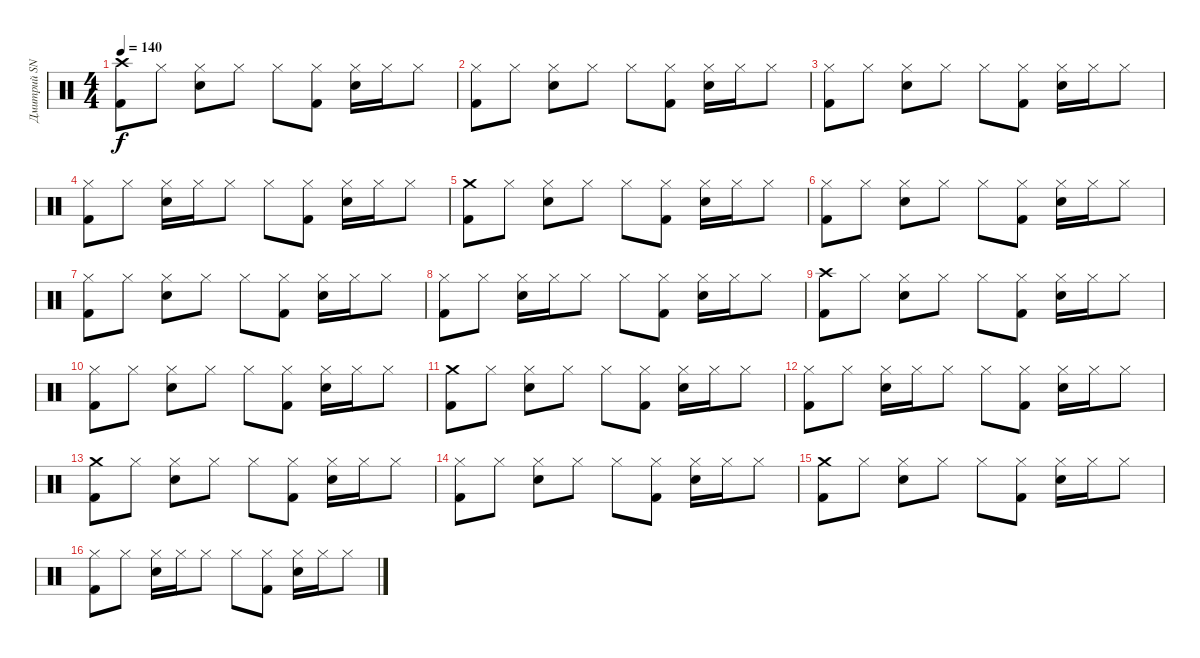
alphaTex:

\track ("Дмитрий SNAKE Хакимов" "Дмитрий SN") {instrument percussion}
\staff {score}
\articulation defaults
\ts (4 4)
\tempo 140
\clef neutral
\ks c
("Crash high (hit)" "Kick (hit) 2").8{dy f} "Hi-Hat (closed)".8 ("Hi-Hat (closed)" "Electric Snare (hit)").8 "Hi-Hat (closed)".8 "Hi-Hat (closed)".8 ("Hi-Hat (closed)" "Kick (hit) 2").8 ("Hi-Hat (closed)" "Electric Snare (hit)").16 "Hi-Hat (closed)".16 "Hi-Hat (closed)".8 |
("Hi-Hat (closed)" "Kick (hit) 2").8 "Hi-Hat (closed)".8 ("Hi-Hat (closed)" "Electric Snare (hit)").8 "Hi-Hat (closed)".8 "Hi-Hat (closed)".8 ("Hi-Hat (closed)" "Kick (hit) 2").8 ("Hi-Hat (closed)" "Electric Snare (hit)").16 "Hi-Hat (closed)".16 "Hi-Hat (closed)".8 |
("Hi-Hat (closed)" "Kick (hit) 2").8 "Hi-Hat (closed)".8 ("Hi-Hat (closed)" "Electric Snare (hit)").8 "Hi-Hat (closed)".8 "Hi-Hat (closed)".8 ("Hi-Hat (closed)" "Kick (hit) 2").8 ("Hi-Hat (closed)" "Electric Snare (hit)").16 "Hi-Hat (closed)".16 "Hi-Hat (closed)".8 |
("Hi-Hat (closed)" "Kick (hit) 2").8 "Hi-Hat (closed)".8 ("Hi-Hat (closed)" "Electric Snare (hit)").16 "Hi-Hat (closed)".16 "Hi-Hat (closed)".8 "Hi-Hat (closed)".8 ("Hi-Hat (closed)" "Kick (hit) 2").8 ("Hi-Hat (closed)" "Electric Snare (hit)").16 "Hi-Hat (closed)".16 "Hi-Hat (closed)".8 |
("Crash medium (hit)" "Kick (hit) 2").8 "Hi-Hat (closed)".8 ("Hi-Hat (closed)" "Electric Snare (hit)").8 "Hi-Hat (closed)".8 "Hi-Hat (closed)".8 ("Hi-Hat (closed)" "Kick (hit) 2").8 ("Hi-Hat (closed)" "Electric Snare (hit)").16 "Hi-Hat (closed)".16 "Hi-Hat (closed)".8 |
("Hi-Hat (closed)" "Kick (hit) 2").8 "Hi-Hat (closed)".8 ("Hi-Hat (closed)" "Electric Snare (hit)").8 "Hi-Hat (closed)".8 "Hi-Hat (closed)".8 ("Hi-Hat (closed)" "Kick (hit) 2").8 ("Hi-Hat (closed)" "Electric Snare (hit)").16 "Hi-Hat (closed)".16 "Hi-Hat (closed)".8 |
("Hi-Hat (closed)" "Kick (hit) 2").8 "Hi-Hat (closed)".8 ("Hi-Hat (closed)" "Electric Snare (hit)").8 "Hi-Hat (closed)".8 "Hi-Hat (closed)".8 ("Hi-Hat (closed)" "Kick (hit) 2").8 ("Hi-Hat (closed)" "Electric Snare (hit)").16 "Hi-Hat (closed)".16 "Hi-Hat (closed)".8 |
("Hi-Hat (closed)" "Kick (hit) 2").8 "Hi-Hat (closed)".8 ("Hi-Hat (closed)" "Electric Snare (hit)").16 "Hi-Hat (closed)".16 "Hi-Hat (closed)".8 "Hi-Hat (closed)".8 ("Hi-Hat (closed)" "Kick (hit) 2").8 ("Hi-Hat (closed)" "Electric Snare (hit)").16 "Hi-Hat (closed)".16 "Hi-Hat (closed)".8 |
("Crash high (hit)" "Kick (hit) 2").8 "Hi-Hat (closed)".8 ("Hi-Hat (closed)" "Electric Snare (hit)").8 "Hi-Hat (closed)".8 "Hi-Hat (closed)".8 ("Hi-Hat (closed)" "Kick (hit) 2").8 ("Hi-Hat (closed)" "Electric Snare (hit)").16 "Hi-Hat (closed)".16 "Hi-Hat (closed)".8 |
("Hi-Hat (closed)" "Kick (hit) 2").8 "Hi-Hat (closed)".8 ("Hi-Hat (closed)" "Electric Snare (hit)").8 "Hi-Hat (closed)".8 "Hi-Hat (closed)".8 ("Hi-Hat (closed)" "Kick (hit) 2").8 ("Hi-Hat (closed)" "Electric Snare (hit)").16 "Hi-Hat (closed)".16 "Hi-Hat (closed)".8 |
("Crash medium (hit)" "Kick (hit) 2").8 "Hi-Hat (closed)".8 ("Hi-Hat (closed)" "Electric Snare (hit)").8 "Hi-Hat (closed)".8 "Hi-Hat (closed)".8 ("Hi-Hat (closed)" "Kick (hit) 2").8 ("Hi-Hat (closed)" "Electric Snare (hit)").16 "Hi-Hat (closed)".16 "Hi-Hat (closed)".8 |
("Hi-Hat (closed)" "Kick (hit) 2").8 "Hi-Hat (closed)".8 ("Hi-Hat (closed)" "Electric Snare (hit)").16 "Hi-Hat (closed)".16 "Hi-Hat (closed)".8 "Hi-Hat (closed)".8 ("Hi-Hat (closed)" "Kick (hit) 2").8 ("Hi-Hat (closed)" "Electric Snare (hit)").16 "Hi-Hat (closed)".16 "Hi-Hat (closed)".8 |
("Crash medium (hit)" "Kick (hit) 2").8 "Hi-Hat (closed)".8 ("Hi-Hat (closed)" "Electric Snare (hit)").8 "Hi-Hat (closed)".8 "Hi-Hat (closed)".8 ("Hi-Hat (closed)" "Kick (hit) 2").8 ("Hi-Hat (closed)" "Electric Snare (hit)").16 "Hi-Hat (closed)".16 "Hi-Hat (closed)".8 |
("Hi-Hat (closed)" "Kick (hit) 2").8 "Hi-Hat (closed)".8 ("Hi-Hat (closed)" "Electric Snare (hit)").8 "Hi-Hat (closed)".8 "Hi-Hat (closed)".8 ("Hi-Hat (closed)" "Kick (hit) 2").8 ("Hi-Hat (closed)" "Electric Snare (hit)").16 "Hi-Hat (closed)".16 "Hi-Hat (closed)".8 |
("Crash medium (hit)" "Kick (hit) 2").8 "Hi-Hat (closed)".8 ("Hi-Hat (closed)" "Electric Snare (hit)").8 "Hi-Hat (closed)".8 "Hi-Hat (closed)".8 ("Hi-Hat (closed)" "Kick (hit) 2").8 ("Hi-Hat (closed)" "Electric Snare (hit)").16 "Hi-Hat (closed)".16 "Hi-Hat (closed)".8 |
("Hi-Hat (closed)" "Kick (hit) 2").8 "Hi-Hat (closed)".8 ("Hi-Hat (closed)" "Electric Snare (hit)").16 "Hi-Hat (closed)".16 "Hi-Hat (closed)".8 "Hi-Hat (closed)".8 ("Hi-Hat (closed)" "Kick (hit) 2").8 ("Hi-Hat (closed)" "Electric Snare (hit)").16 "Hi-Hat (closed)".16 "Hi-Hat (closed)".8
